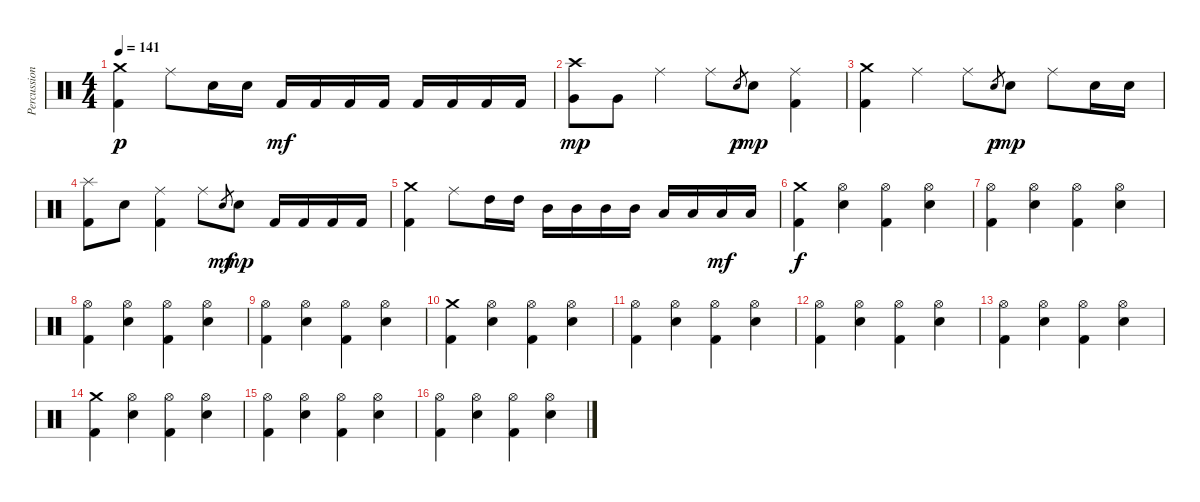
\track ("Percussion" "Percussion") {instrument percussion}
\staff {score}
\articulation defaults
\ts (4 4)
\tempo 141
\clef neutral
\ks c
("Kick (hit) 2" "Crash medium (hit)").4{dy p} "Ride (middle)".8 "Electric Snare (hit)".16 "Electric Snare (hit)".16 "Kick (hit) 2".16{dy mf} "Kick (hit) 2".16 "Kick (hit) 2".16 "Kick (hit) 2".16 "Kick (hit) 2".16 "Kick (hit) 2".16 "Kick (hit) 2".16 "Kick (hit) 2".16 |
("Very Low Tom (hit)" "Crash high (hit)").8{dy mp} "Very Low Tom (hit)".8 "Ride (middle)".4 "Ride (middle)".8 "Electric Snare (hit)".8{gr dy p} "Electric Snare (hit)".8{dy mp} ("Kick (hit) 2" "Ride (middle)").4 |
("Kick (hit) 2" "Crash medium (hit)").4 "Ride (middle)".4 "Ride (middle)".8 "Electric Snare (hit)".8{gr dy p} "Electric Snare (hit)".8{dy mp} "Ride (middle)".8 "Electric Snare (hit)".16 "Electric Snare (hit)".16 |
("Kick (hit) 2" "Splash (hit)").8 "Electric Snare (hit)".8 ("Kick (hit) 2" "Ride (middle)").4 "Ride (middle)".8 "Electric Snare (hit)".8{gr dy mf} "Electric Snare (hit)".8{dy mp} "Kick (hit) 2".16 "Kick (hit) 2".16 "Kick (hit) 2".16 "Kick (hit) 2".16 |
("Kick (hit) 2" "Crash medium (hit)").4 "Ride (middle)".8 "High Tom (hit)".16 "High Tom (hit)".16 "Mid Tom (hit)".16 "Mid Tom (hit)".16 "Mid Tom (hit)".16 "Mid Tom (hit)".16 "Low Tom (hit)".16 "Low Tom (hit)".16 "Low Tom (hit)".16{dy mf} "Low Tom (hit)".16 |
("Kick (hit) 2" "Crash medium (hit)").4{dy f} ("Electric Snare (hit)" "Hi-Hat (open)").4 ("Kick (hit) 2" "Hi-Hat (open)").4 ("Electric Snare (hit)" "Hi-Hat (open)").4 |
("Kick (hit) 2" "Hi-Hat (open)").4 ("Electric Snare (hit)" "Hi-Hat (open)").4 ("Kick (hit) 2" "Hi-Hat (open)").4 ("Electric Snare (hit)" "Hi-Hat (open)").4 |
("Kick (hit) 2" "Hi-Hat (open)").4 ("Electric Snare (hit)" "Hi-Hat (open)").4 ("Kick (hit) 2" "Hi-Hat (open)").4 ("Electric Snare (hit)" "Hi-Hat (open)").4 |
("Kick (hit) 2" "Hi-Hat (open)").4 ("Electric Snare (hit)" "Hi-Hat (open)").4 ("Kick (hit) 2" "Hi-Hat (open)").4 ("Electric Snare (hit)" "Hi-Hat (open)").4 |
("Kick (hit) 2" "Crash medium (hit)").4 ("Electric Snare (hit)" "Hi-Hat (open)").4 ("Kick (hit) 2" "Hi-Hat (open)").4 ("Electric Snare (hit)" "Hi-Hat (open)").4 |
("Kick (hit) 2" "Hi-Hat (open)").4 ("Electric Snare (hit)" "Hi-Hat (open)").4 ("Kick (hit) 2" "Hi-Hat (open)").4 ("Electric Snare (hit)" "Hi-Hat (open)").4 |
("Kick (hit) 2" "Hi-Hat (open)").4 ("Electric Snare (hit)" "Hi-Hat (open)").4 ("Kick (hit) 2" "Hi-Hat (open)").4 ("Electric Snare (hit)" "Hi-Hat (open)").4 |
("Kick (hit) 2" "Hi-Hat (open)").4 ("Electric Snare (hit)" "Hi-Hat (open)").4 ("Kick (hit) 2" "Hi-Hat (open)").4 ("Electric Snare (hit)" "Hi-Hat (open)").4 |
("Kick (hit) 2" "Crash medium (hit)").4 ("Electric Snare (hit)" "Hi-Hat (open)").4 ("Kick (hit) 2" "Hi-Hat (open)").4 ("Electric Snare (hit)" "Hi-Hat (open)").4 |
("Kick (hit) 2" "Hi-Hat (open)").4 ("Electric Snare (hit)" "Hi-Hat (open)").4 ("Kick (hit) 2" "Hi-Hat (open)").4 ("Electric Snare (hit)" "Hi-Hat (open)").4 |
("Kick (hit) 2" "Hi-Hat (open)").4 ("Electric Snare (hit)" "Hi-Hat (open)").4 ("Kick (hit) 2" "Hi-Hat (open)").4 ("Electric Snare (hit)" "Hi-Hat (open)").4
